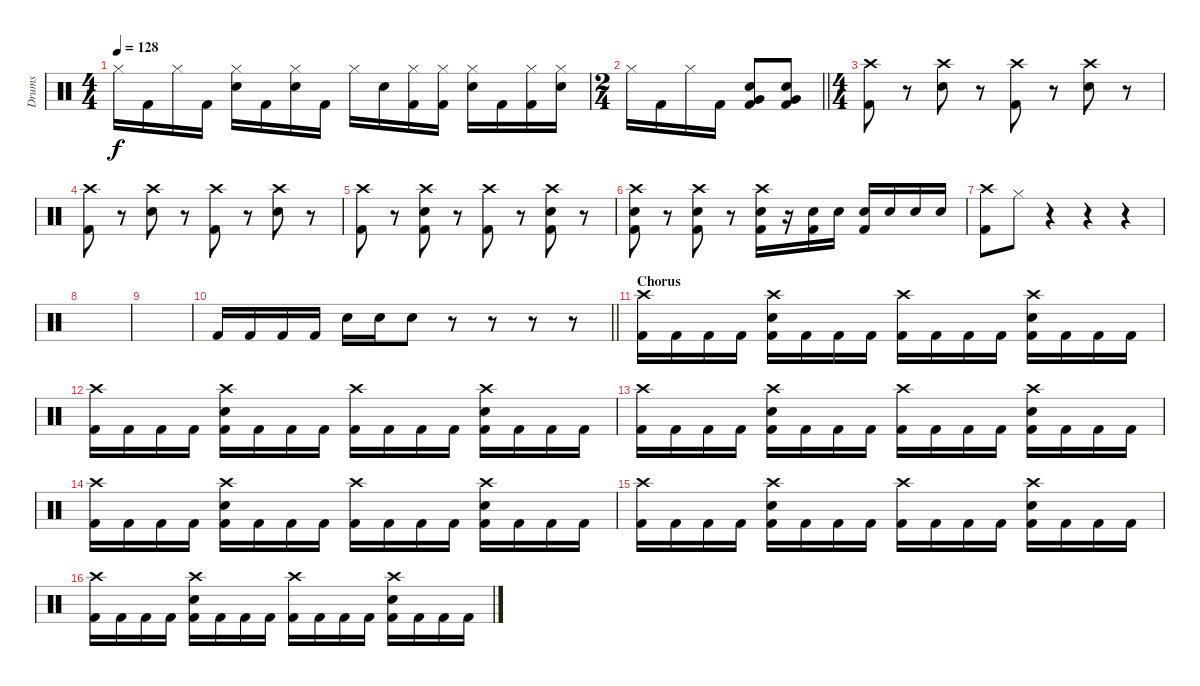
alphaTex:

\track ("Drums" "Drums") {instrument percussion}
\staff {score}
\articulation defaults
\ts (4 4)
\tempo 128
\clef neutral
\ks c "Hi-Hat (closed)".16{dy f} "Kick (hit) 2".16 "Hi-Hat (closed)".16 "Kick (hit) 2".16
("Hi-Hat (closed)" "Electric Snare (hit)").16 "Kick (hit) 2".16 ("Hi-Hat (closed)" "Electric Snare (hit)").16 "Kick (hit) 2".16 "Hi-Hat (closed)".16 "Electric Snare (hit)".16 ("Hi-Hat (closed)" "Kick (hit) 2").16 ("Hi-Hat (closed)" "Kick (hit) 2").16 ("Hi-Hat (closed)" "Electric Snare (hit)").16 "Kick (hit) 2".16 ("Hi-Hat (closed)" "Kick (hit) 2").16 ("Hi-Hat (closed)" "Electric Snare (hit)").16 |
\ts (2 4)
\barLineRight lightlight "Hi-Hat (closed)".16 "Kick (hit) 2".16 "Hi-Hat (closed)".16 "Kick (hit) 2".16
("Very Low Tom (hit)" "Electric Snare (hit)" "Kick (hit) 2").8 ("Very Low Tom (hit)" "Electric Snare (hit)" "Kick (hit) 2").8 |
\ts (4 4)
("Crash high (hit)" "Kick (hit) 2").8 r.8 ("Crash high (hit)" "Electric Snare (hit)").8 r.8 ("Crash high (hit)" "Kick (hit) 2").8 r.8 ("Crash high (hit)" "Electric Snare (hit)").8 r.8 |
("Crash high (hit)" "Kick (hit) 2").8 r.8 ("Crash high (hit)" "Electric Snare (hit)").8 r.8 ("Crash high (hit)" "Kick (hit) 2").8 r.8 ("Crash high (hit)" "Electric Snare (hit)").8 r.8 |
("Crash high (hit)" "Kick (hit) 2").8 r.8 ("Crash high (hit)" "Electric Snare (hit)" "Kick (hit) 2").8 r.8 ("Crash high (hit)" "Kick (hit) 2").8 r.8 ("Crash high (hit)" "Electric Snare (hit)" "Kick (hit) 2").8 r.8 |
("Crash high (hit)" "Electric Snare (hit)" "Kick (hit) 2").8 r.8 ("Crash high (hit)" "Electric Snare (hit)" "Kick (hit) 2").8 r.8 ("Crash high (hit)" "Electric Snare (hit)" "Kick (hit) 2").16 r.16 ("Electric Snare (hit)" "Kick (hit) 2").16 "Electric Snare (hit)".16 ("Electric Snare (hit)" "Kick (hit) 2").16 "Electric Snare (hit)".16 "Electric Snare (hit)".16 "Electric Snare (hit)".16 |
("Crash high (hit)" "Kick (hit) 2").8 "Hi-Hat (closed)".8 r.4 r.4 r.4 |
|
|
\barLineRight lightlight "Kick (hit) 2".16 "Kick (hit) 2".16 "Kick (hit) 2".16 "Kick (hit) 2".16 "Electric Snare (hit)".16 "Electric Snare (hit)".16 "Electric Snare (hit)".8
r.8 r.8 r.8 r.8 |
\section ("" "Chorus")
("Crash high (hit)" "Kick (hit) 2").16 "Kick (hit) 2".16 "Kick (hit) 2".16 "Kick (hit) 2".16 ("Crash high (hit)" "Electric Snare (hit)" "Kick (hit) 2").16 "Kick (hit) 2".16 "Kick (hit) 2".16 "Kick (hit) 2".16 ("Crash high (hit)" "Kick (hit) 2").16 "Kick (hit) 2".16 "Kick (hit) 2".16 "Kick (hit) 2".16 ("Crash high (hit)" "Electric Snare (hit)" "Kick (hit) 2").16 "Kick (hit) 2".16 "Kick (hit) 2".16 "Kick (hit) 2".16 |
("Crash high (hit)" "Kick (hit) 2").16 "Kick (hit) 2".16 "Kick (hit) 2".16 "Kick (hit) 2".16 ("Crash high (hit)" "Electric Snare (hit)" "Kick (hit) 2").16 "Kick (hit) 2".16 "Kick (hit) 2".16 "Kick (hit) 2".16 ("Crash high (hit)" "Kick (hit) 2").16 "Kick (hit) 2".16 "Kick (hit) 2".16 "Kick (hit) 2".16 ("Crash high (hit)" "Electric Snare (hit)" "Kick (hit) 2").16 "Kick (hit) 2".16 "Kick (hit) 2".16 "Kick (hit) 2".16 |
("Crash high (hit)" "Kick (hit) 2").16 "Kick (hit) 2".16 "Kick (hit) 2".16 "Kick (hit) 2".16 ("Crash high (hit)" "Electric Snare (hit)" "Kick (hit) 2").16 "Kick (hit) 2".16 "Kick (hit) 2".16 "Kick (hit) 2".16 ("Crash high (hit)" "Kick (hit) 2").16 "Kick (hit) 2".16 "Kick (hit) 2".16 "Kick (hit) 2".16 ("Crash high (hit)" "Electric Snare (hit)" "Kick (hit) 2").16 "Kick (hit) 2".16 "Kick (hit) 2".16 "Kick (hit) 2".16 |
("Crash high (hit)" "Kick (hit) 2").16 "Kick (hit) 2".16 "Kick (hit) 2".16 "Kick (hit) 2".16 ("Crash high (hit)" "Electric Snare (hit)" "Kick (hit) 2").16 "Kick (hit) 2".16 "Kick (hit) 2".16 "Kick (hit) 2".16 ("Crash high (hit)" "Kick (hit) 2").16 "Kick (hit) 2".16 "Kick (hit) 2".16 "Kick (hit) 2".16 ("Crash high (hit)" "Electric Snare (hit)" "Kick (hit) 2").16 "Kick (hit) 2".16 "Kick (hit) 2".16 "Kick (hit) 2".16 |
("Crash high (hit)" "Kick (hit) 2").16 "Kick (hit) 2".16 "Kick (hit) 2".16 "Kick (hit) 2".16 ("Crash high (hit)" "Electric Snare (hit)" "Kick (hit) 2").16 "Kick (hit) 2".16 "Kick (hit) 2".16 "Kick (hit) 2".16 ("Crash high (hit)" "Kick (hit) 2").16 "Kick (hit) 2".16 "Kick (hit) 2".16 "Kick (hit) 2".16 ("Crash high (hit)" "Electric Snare (hit)" "Kick (hit) 2").16 "Kick (hit) 2".16 "Kick (hit) 2".16 "Kick (hit) 2".16 |
("Crash high (hit)" "Kick (hit) 2").16 "Kick (hit) 2".16 "Kick (hit) 2".16 "Kick (hit) 2".16 ("Crash high (hit)" "Electric Snare (hit)" "Kick (hit) 2").16 "Kick (hit) 2".16 "Kick (hit) 2".16 "Kick (hit) 2".16 ("Crash high (hit)" "Kick (hit) 2").16 "Kick (hit) 2".16 "Kick (hit) 2".16 "Kick (hit) 2".16 ("Crash high (hit)" "Electric Snare (hit)" "Kick (hit) 2").16 "Kick (hit) 2".16 "Kick (hit) 2".16 "Kick (hit) 2".16
